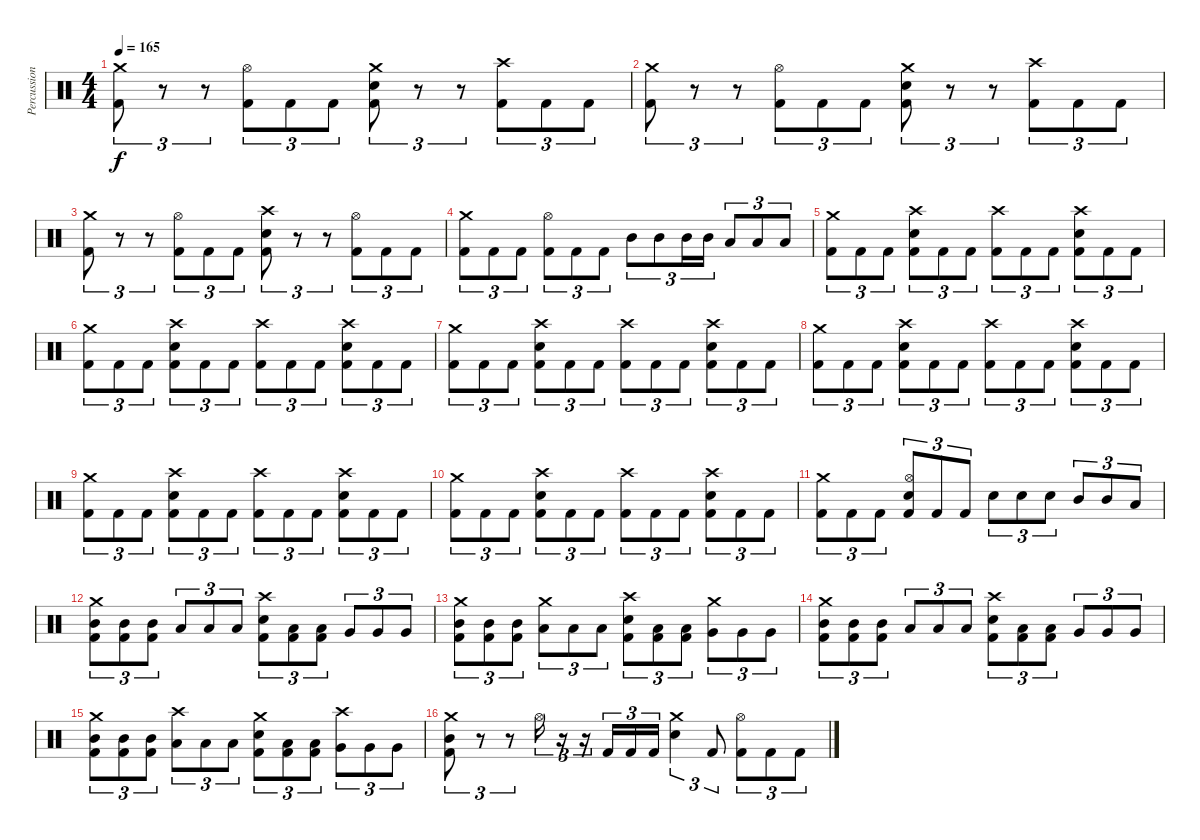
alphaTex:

\track ("Percussion" "Percussion") {instrument percussion}
\staff {score}
\articulation defaults
\ts (4 4)
\tempo 165
\clef neutral
\ks c
("Crash medium (hit)" "Kick (hit) 2").8{tu (3 2) dy f} r.8{tu (3 2)} r.8{tu (3 2)} ("Hi-Hat (open)" "Kick (hit) 2").8{tu (3 2)} "Kick (hit) 2".8{tu (3 2)} "Kick (hit) 2".8{tu (3 2)} ("Crash medium (hit)" "Snare (hit) 2" "Kick (hit) 2").8{tu (3 2)} r.8{tu (3 2)} r.8{tu (3 2)} ("Crash high (hit)" "Kick (hit) 2").8{tu (3 2)} "Kick (hit) 2".8{tu (3 2)} "Kick (hit) 2".8{tu (3 2)} |
("Crash medium (hit)" "Kick (hit) 2").8{tu (3 2)} r.8{tu (3 2)} r.8{tu (3 2)} ("Hi-Hat (open)" "Kick (hit) 2").8{tu (3 2)} "Kick (hit) 2".8{tu (3 2)} "Kick (hit) 2".8{tu (3 2)} ("Crash medium (hit)" "Snare (hit) 2" "Kick (hit) 2").8{tu (3 2)} r.8{tu (3 2)} r.8{tu (3 2)} ("Crash high (hit)" "Kick (hit) 2").8{tu (3 2)} "Kick (hit) 2".8{tu (3 2)} "Kick (hit) 2".8{tu (3 2)} |
("Crash medium (hit)" "Kick (hit) 2").8{tu (3 2)} r.8{tu (3 2)} r.8{tu (3 2)} ("Hi-Hat (open)" "Kick (hit) 2").8{tu (3 2)} "Kick (hit) 2".8{tu (3 2)} "Kick (hit) 2".8{tu (3 2)} ("Crash high (hit)" "Snare (hit) 2" "Kick (hit) 2").8{tu (3 2)} r.8{tu (3 2)} r.8{tu (3 2)} ("Hi-Hat (open)" "Kick (hit) 2").8{tu (3 2)} "Kick (hit) 2".8{tu (3 2)} "Kick (hit) 2".8{tu (3 2)} |
("Crash medium (hit)" "Kick (hit) 2").8{tu (3 2)} "Kick (hit) 2".8{tu (3 2)} "Kick (hit) 2".8{tu (3 2)} ("Hi-Hat (open)" "Kick (hit) 2").8{tu (3 2)} "Kick (hit) 2".8{tu (3 2)} "Kick (hit) 2".8{tu (3 2)} "Mid Tom (hit)".8{tu (3 2)} "Mid Tom (hit)".8{tu (3 2)} "Mid Tom (hit)".16{tu (3 2)} "Mid Tom (hit)".16{tu (3 2)} "Low Tom (hit)".8{tu (3 2)} "Low Tom (hit)".8{tu (3 2)} "Low Tom (hit)".8{tu (3 2)} |
("Crash medium (hit)" "Kick (hit) 2").8{tu (3 2)} "Kick (hit) 2".8{tu (3 2)} "Kick (hit) 2".8{tu (3 2)} ("Crash high (hit)" "Snare (hit) 2" "Kick (hit) 2").8{tu (3 2)} "Kick (hit) 2".8{tu (3 2)} "Kick (hit) 2".8{tu (3 2)} ("Crash high (hit)" "Kick (hit) 2").8{tu (3 2)} "Kick (hit) 2".8{tu (3 2)} "Kick (hit) 2".8{tu (3 2)} ("Crash high (hit)" "Snare (hit) 2" "Kick (hit) 2").8{tu (3 2)} "Kick (hit) 2".8{tu (3 2)} "Kick (hit) 2".8{tu (3 2)} |
("Crash medium (hit)" "Kick (hit) 2").8{tu (3 2)} "Kick (hit) 2".8{tu (3 2)} "Kick (hit) 2".8{tu (3 2)} ("Crash high (hit)" "Snare (hit) 2" "Kick (hit) 2").8{tu (3 2)} "Kick (hit) 2".8{tu (3 2)} "Kick (hit) 2".8{tu (3 2)} ("Crash high (hit)" "Kick (hit) 2").8{tu (3 2)} "Kick (hit) 2".8{tu (3 2)} "Kick (hit) 2".8{tu (3 2)} ("Crash high (hit)" "Snare (hit) 2" "Kick (hit) 2").8{tu (3 2)} "Kick (hit) 2".8{tu (3 2)} "Kick (hit) 2".8{tu (3 2)} |
("Crash medium (hit)" "Kick (hit) 2").8{tu (3 2)} "Kick (hit) 2".8{tu (3 2)} "Kick (hit) 2".8{tu (3 2)} ("Crash high (hit)" "Snare (hit) 2" "Kick (hit) 2").8{tu (3 2)} "Kick (hit) 2".8{tu (3 2)} "Kick (hit) 2".8{tu (3 2)} ("Crash high (hit)" "Kick (hit) 2").8{tu (3 2)} "Kick (hit) 2".8{tu (3 2)} "Kick (hit) 2".8{tu (3 2)} ("Crash high (hit)" "Snare (hit) 2" "Kick (hit) 2").8{tu (3 2)} "Kick (hit) 2".8{tu (3 2)} "Kick (hit) 2".8{tu (3 2)} |
("Crash medium (hit)" "Kick (hit) 2").8{tu (3 2)} "Kick (hit) 2".8{tu (3 2)} "Kick (hit) 2".8{tu (3 2)} ("Crash high (hit)" "Snare (hit) 2" "Kick (hit) 2").8{tu (3 2)} "Kick (hit) 2".8{tu (3 2)} "Kick (hit) 2".8{tu (3 2)} ("Crash high (hit)" "Kick (hit) 2").8{tu (3 2)} "Kick (hit) 2".8{tu (3 2)} "Kick (hit) 2".8{tu (3 2)} ("Crash high (hit)" "Snare (hit) 2" "Kick (hit) 2").8{tu (3 2)} "Kick (hit) 2".8{tu (3 2)} "Kick (hit) 2".8{tu (3 2)} |
("Crash medium (hit)" "Kick (hit) 2").8{tu (3 2)} "Kick (hit) 2".8{tu (3 2)} "Kick (hit) 2".8{tu (3 2)} ("Crash high (hit)" "Snare (hit) 2" "Kick (hit) 2").8{tu (3 2)} "Kick (hit) 2".8{tu (3 2)} "Kick (hit) 2".8{tu (3 2)} ("Crash high (hit)" "Kick (hit) 2").8{tu (3 2)} "Kick (hit) 2".8{tu (3 2)} "Kick (hit) 2".8{tu (3 2)} ("Crash high (hit)" "Snare (hit) 2" "Kick (hit) 2").8{tu (3 2)} "Kick (hit) 2".8{tu (3 2)} "Kick (hit) 2".8{tu (3 2)} |
("Crash medium (hit)" "Kick (hit) 2").8{tu (3 2)} "Kick (hit) 2".8{tu (3 2)} "Kick (hit) 2".8{tu (3 2)} ("Crash high (hit)" "Snare (hit) 2" "Kick (hit) 2").8{tu (3 2)} "Kick (hit) 2".8{tu (3 2)} "Kick (hit) 2".8{tu (3 2)} ("Crash high (hit)" "Kick (hit) 2").8{tu (3 2)} "Kick (hit) 2".8{tu (3 2)} "Kick (hit) 2".8{tu (3 2)} ("Crash high (hit)" "Snare (hit) 2" "Kick (hit) 2").8{tu (3 2)} "Kick (hit) 2".8{tu (3 2)} "Kick (hit) 2".8{tu (3 2)} |
("Crash medium (hit)" "Kick (hit) 2").8{tu (3 2)} "Kick (hit) 2".8{tu (3 2)} "Kick (hit) 2".8{tu (3 2)} ("Hi-Hat (open)" "Snare (hit) 2" "Kick (hit) 2").8{tu (3 2)} "Kick (hit) 2".8{tu (3 2)} "Kick (hit) 2".8{tu (3 2)} "Snare (hit) 2".8{tu (3 2)} "Snare (hit) 2".8{tu (3 2)} "Snare (hit) 2".8{tu (3 2)} "Mid Tom (hit)".8{tu (3 2)} "Mid Tom (hit)".8{tu (3 2)} "Low Tom (hit)".8{tu (3 2)} |
("Crash medium (hit)" "Mid Tom (hit)" "Kick (hit) 2").8{tu (3 2)} ("Mid Tom (hit)" "Kick (hit) 2").8{tu (3 2)} ("Mid Tom (hit)" "Kick (hit) 2").8{tu (3 2)} "Low Tom (hit)".8{tu (3 2)} "Low Tom (hit)".8{tu (3 2)} "Low Tom (hit)".8{tu (3 2)} ("Crash high (hit)" "Snare (hit) 2" "Kick (hit) 2").8{tu (3 2)} ("Low Tom (hit)" "Kick (hit) 2").8{tu (3 2)} ("Low Tom (hit)" "Kick (hit) 2").8{tu (3 2)} "Very Low Tom (hit)".8{tu (3 2)} "Very Low Tom (hit)".8{tu (3 2)} "Very Low Tom (hit)".8{tu (3 2)} |
("Crash medium (hit)" "Mid Tom (hit)" "Kick (hit) 2").8{tu (3 2)} ("Mid Tom (hit)" "Kick (hit) 2").8{tu (3 2)} ("Mid Tom (hit)" "Kick (hit) 2").8{tu (3 2)} ("Crash medium (hit)" "Low Tom (hit)").8{tu (3 2)} "Low Tom (hit)".8{tu (3 2)} "Low Tom (hit)".8{tu (3 2)} ("Crash high (hit)" "Snare (hit) 2" "Kick (hit) 2").8{tu (3 2)} ("Low Tom (hit)" "Kick (hit) 2").8{tu (3 2)} ("Low Tom (hit)" "Kick (hit) 2").8{tu (3 2)} ("Crash medium (hit)" "Very Low Tom (hit)").8{tu (3 2)} "Very Low Tom (hit)".8{tu (3 2)} "Very Low Tom (hit)".8{tu (3 2)} |
("Crash medium (hit)" "Mid Tom (hit)" "Kick (hit) 2").8{tu (3 2)} ("Mid Tom (hit)" "Kick (hit) 2").8{tu (3 2)} ("Mid Tom (hit)" "Kick (hit) 2").8{tu (3 2)} "Low Tom (hit)".8{tu (3 2)} "Low Tom (hit)".8{tu (3 2)} "Low Tom (hit)".8{tu (3 2)} ("Crash high (hit)" "Snare (hit) 2" "Kick (hit) 2").8{tu (3 2)} ("Low Tom (hit)" "Kick (hit) 2").8{tu (3 2)} ("Low Tom (hit)" "Kick (hit) 2").8{tu (3 2)} "Very Low Tom (hit)".8{tu (3 2)} "Very Low Tom (hit)".8{tu (3 2)} "Very Low Tom (hit)".8{tu (3 2)} |
("Crash medium (hit)" "Mid Tom (hit)" "Kick (hit) 2").8{tu (3 2)} ("Mid Tom (hit)" "Kick (hit) 2").8{tu (3 2)} ("Mid Tom (hit)" "Kick (hit) 2").8{tu (3 2)} ("Crash high (hit)" "Low Tom (hit)").8{tu (3 2)} "Low Tom (hit)".8{tu (3 2)} "Low Tom (hit)".8{tu (3 2)} ("Crash medium (hit)" "Snare (hit) 2" "Kick (hit) 2").8{tu (3 2)} ("Low Tom (hit)" "Kick (hit) 2").8{tu (3 2)} ("Low Tom (hit)" "Kick (hit) 2").8{tu (3 2)} ("Crash high (hit)" "Very Low Tom (hit)").8{tu (3 2)} "Very Low Tom (hit)".8{tu (3 2)} "Very Low Tom (hit)".8{tu (3 2)} |
("Crash medium (hit)" "Mid Tom (hit)" "Kick (hit) 2").8{tu (3 2)} r.8{tu (3 2)} r.8{tu (3 2)} "Hi-Hat (open)".16{tu (3 2)} r.16{tu (3 2)} r.16{tu (3 2)} "Kick (hit) 2".16{tu (3 2)} "Kick (hit) 2".16{tu (3 2)} "Kick (hit) 2".16{tu (3 2)} ("Crash medium (hit)" "Snare (hit) 2").4{tu (3 2)} "Kick (hit) 2".8{tu (3 2)} ("Hi-Hat (open)" "Kick (hit) 2").8{tu (3 2)} "Kick (hit) 2".8{tu (3 2)} "Kick (hit) 2".8{tu (3 2)}
